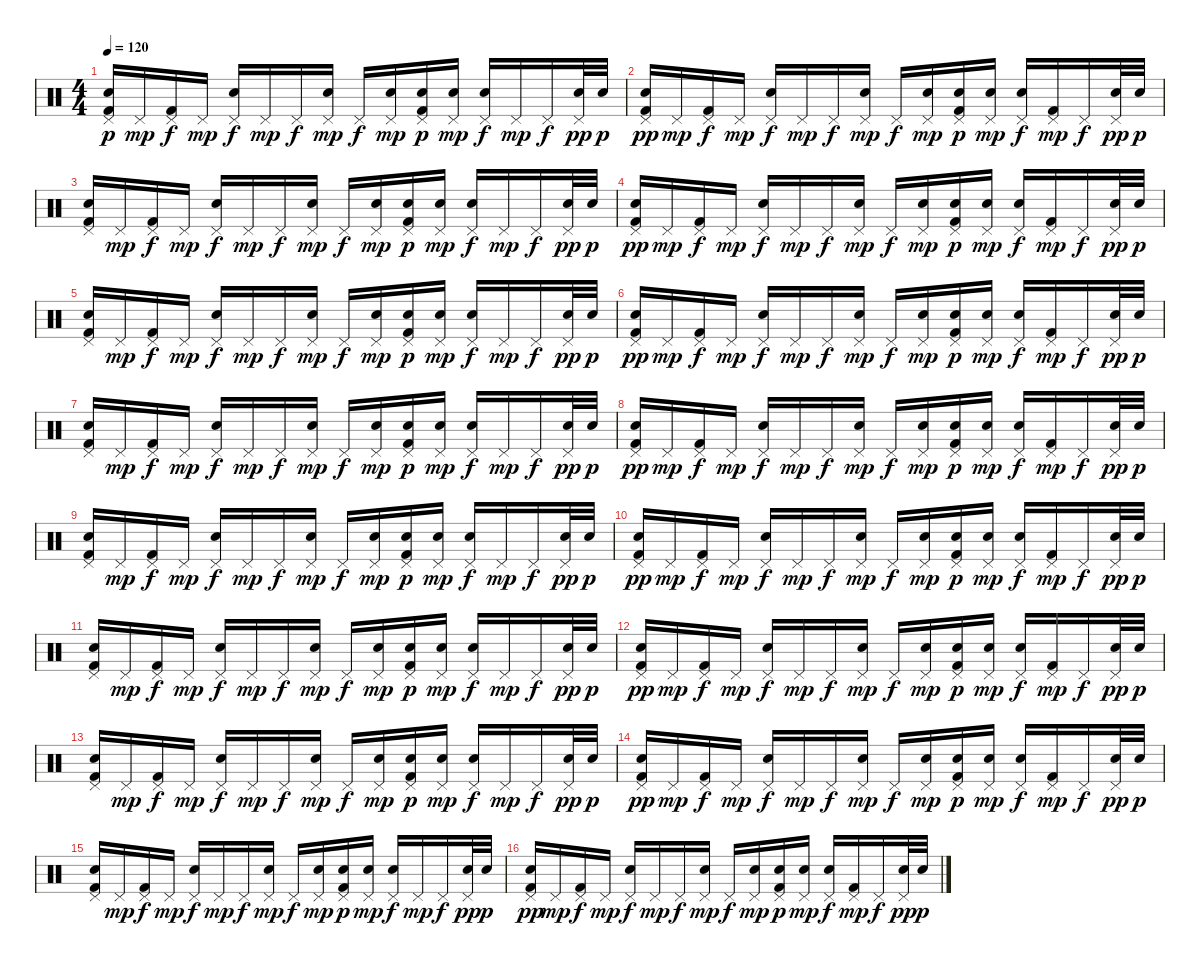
\track "" {instrument percussion}
\staff {score}
\articulation defaults
\ts (4 4)
\tempo 120
\clef neutral
\ks c
("Pedal Hi-Hat (hit)" "Electric Snare (hit)" "Kick (hit) 2").16{dy p} "Pedal Hi-Hat (hit)".16{dy mp} ("Pedal Hi-Hat (hit)" "Kick (hit) 2").16{dy f} "Pedal Hi-Hat (hit)".16{dy mp} ("Pedal Hi-Hat (hit)" "Electric Snare (hit)").16{dy f} "Pedal Hi-Hat (hit)".16{dy mp} "Pedal Hi-Hat (hit)".16{dy f} ("Pedal Hi-Hat (hit)" "Electric Snare (hit)").16{dy mp} "Pedal Hi-Hat (hit)".16{dy f} ("Pedal Hi-Hat (hit)" "Electric Snare (hit)").16{dy mp} ("Pedal Hi-Hat (hit)" "Electric Snare (hit)" "Kick (hit) 2").16{dy p} ("Pedal Hi-Hat (hit)" "Electric Snare (hit)").16{dy mp} ("Pedal Hi-Hat (hit)" "Electric Snare (hit)").16{dy f} "Pedal Hi-Hat (hit)".16{dy mp} "Pedal Hi-Hat (hit)".16{dy f} ("Pedal Hi-Hat (hit)" "Electric Snare (hit)").32{dy pp} "Electric Snare (hit)".32{dy p} |
("Pedal Hi-Hat (hit)" "Electric Snare (hit)" "Kick (hit) 2").16{dy pp} "Pedal Hi-Hat (hit)".16{dy mp} ("Pedal Hi-Hat (hit)" "Kick (hit) 2").16{dy f} "Pedal Hi-Hat (hit)".16{dy mp} ("Pedal Hi-Hat (hit)" "Electric Snare (hit)").16{dy f} "Pedal Hi-Hat (hit)".16{dy mp} "Pedal Hi-Hat (hit)".16{dy f} ("Pedal Hi-Hat (hit)" "Electric Snare (hit)").16{dy mp} "Pedal Hi-Hat (hit)".16{dy f} ("Pedal Hi-Hat (hit)" "Electric Snare (hit)").16{dy mp} ("Pedal Hi-Hat (hit)" "Electric Snare (hit)" "Kick (hit) 2").16{dy p} ("Pedal Hi-Hat (hit)" "Electric Snare (hit)").16{dy mp} ("Pedal Hi-Hat (hit)" "Electric Snare (hit)").16{dy f} ("Pedal Hi-Hat (hit)" "Kick (hit) 2").16{dy mp} "Pedal Hi-Hat (hit)".16{dy f} ("Pedal Hi-Hat (hit)" "Electric Snare (hit)").32{dy pp} "Electric Snare (hit)".32{dy p} |
("Pedal Hi-Hat (hit)" "Electric Snare (hit)" "Kick (hit) 2").16 "Pedal Hi-Hat (hit)".16{dy mp} ("Pedal Hi-Hat (hit)" "Kick (hit) 2").16{dy f} "Pedal Hi-Hat (hit)".16{dy mp} ("Pedal Hi-Hat (hit)" "Electric Snare (hit)").16{dy f} "Pedal Hi-Hat (hit)".16{dy mp} "Pedal Hi-Hat (hit)".16{dy f} ("Pedal Hi-Hat (hit)" "Electric Snare (hit)").16{dy mp} "Pedal Hi-Hat (hit)".16{dy f} ("Pedal Hi-Hat (hit)" "Electric Snare (hit)").16{dy mp} ("Pedal Hi-Hat (hit)" "Electric Snare (hit)" "Kick (hit) 2").16{dy p} ("Pedal Hi-Hat (hit)" "Electric Snare (hit)").16{dy mp} ("Pedal Hi-Hat (hit)" "Electric Snare (hit)").16{dy f} "Pedal Hi-Hat (hit)".16{dy mp} "Pedal Hi-Hat (hit)".16{dy f} ("Pedal Hi-Hat (hit)" "Electric Snare (hit)").32{dy pp} "Electric Snare (hit)".32{dy p} |
("Pedal Hi-Hat (hit)" "Electric Snare (hit)" "Kick (hit) 2").16{dy pp} "Pedal Hi-Hat (hit)".16{dy mp} ("Pedal Hi-Hat (hit)" "Kick (hit) 2").16{dy f} "Pedal Hi-Hat (hit)".16{dy mp} ("Pedal Hi-Hat (hit)" "Electric Snare (hit)").16{dy f} "Pedal Hi-Hat (hit)".16{dy mp} "Pedal Hi-Hat (hit)".16{dy f} ("Pedal Hi-Hat (hit)" "Electric Snare (hit)").16{dy mp} "Pedal Hi-Hat (hit)".16{dy f} ("Pedal Hi-Hat (hit)" "Electric Snare (hit)").16{dy mp} ("Pedal Hi-Hat (hit)" "Electric Snare (hit)" "Kick (hit) 2").16{dy p} ("Pedal Hi-Hat (hit)" "Electric Snare (hit)").16{dy mp} ("Pedal Hi-Hat (hit)" "Electric Snare (hit)").16{dy f} ("Pedal Hi-Hat (hit)" "Kick (hit) 2").16{dy mp} "Pedal Hi-Hat (hit)".16{dy f} ("Pedal Hi-Hat (hit)" "Electric Snare (hit)").32{dy pp} "Electric Snare (hit)".32{dy p} |
("Pedal Hi-Hat (hit)" "Electric Snare (hit)" "Kick (hit) 2").16 "Pedal Hi-Hat (hit)".16{dy mp} ("Pedal Hi-Hat (hit)" "Kick (hit) 2").16{dy f} "Pedal Hi-Hat (hit)".16{dy mp} ("Pedal Hi-Hat (hit)" "Electric Snare (hit)").16{dy f} "Pedal Hi-Hat (hit)".16{dy mp} "Pedal Hi-Hat (hit)".16{dy f} ("Pedal Hi-Hat (hit)" "Electric Snare (hit)").16{dy mp} "Pedal Hi-Hat (hit)".16{dy f} ("Pedal Hi-Hat (hit)" "Electric Snare (hit)").16{dy mp} ("Pedal Hi-Hat (hit)" "Electric Snare (hit)" "Kick (hit) 2").16{dy p} ("Pedal Hi-Hat (hit)" "Electric Snare (hit)").16{dy mp} ("Pedal Hi-Hat (hit)" "Electric Snare (hit)").16{dy f} "Pedal Hi-Hat (hit)".16{dy mp} "Pedal Hi-Hat (hit)".16{dy f} ("Pedal Hi-Hat (hit)" "Electric Snare (hit)").32{dy pp} "Electric Snare (hit)".32{dy p} |
("Pedal Hi-Hat (hit)" "Electric Snare (hit)" "Kick (hit) 2").16{dy pp} "Pedal Hi-Hat (hit)".16{dy mp} ("Pedal Hi-Hat (hit)" "Kick (hit) 2").16{dy f} "Pedal Hi-Hat (hit)".16{dy mp} ("Pedal Hi-Hat (hit)" "Electric Snare (hit)").16{dy f} "Pedal Hi-Hat (hit)".16{dy mp} "Pedal Hi-Hat (hit)".16{dy f} ("Pedal Hi-Hat (hit)" "Electric Snare (hit)").16{dy mp} "Pedal Hi-Hat (hit)".16{dy f} ("Pedal Hi-Hat (hit)" "Electric Snare (hit)").16{dy mp} ("Pedal Hi-Hat (hit)" "Electric Snare (hit)" "Kick (hit) 2").16{dy p} ("Pedal Hi-Hat (hit)" "Electric Snare (hit)").16{dy mp} ("Pedal Hi-Hat (hit)" "Electric Snare (hit)").16{dy f} ("Pedal Hi-Hat (hit)" "Kick (hit) 2").16{dy mp} "Pedal Hi-Hat (hit)".16{dy f} ("Pedal Hi-Hat (hit)" "Electric Snare (hit)").32{dy pp} "Electric Snare (hit)".32{dy p} |
("Pedal Hi-Hat (hit)" "Electric Snare (hit)" "Kick (hit) 2").16 "Pedal Hi-Hat (hit)".16{dy mp} ("Pedal Hi-Hat (hit)" "Kick (hit) 2").16{dy f} "Pedal Hi-Hat (hit)".16{dy mp} ("Pedal Hi-Hat (hit)" "Electric Snare (hit)").16{dy f} "Pedal Hi-Hat (hit)".16{dy mp} "Pedal Hi-Hat (hit)".16{dy f} ("Pedal Hi-Hat (hit)" "Electric Snare (hit)").16{dy mp} "Pedal Hi-Hat (hit)".16{dy f} ("Pedal Hi-Hat (hit)" "Electric Snare (hit)").16{dy mp} ("Pedal Hi-Hat (hit)" "Electric Snare (hit)" "Kick (hit) 2").16{dy p} ("Pedal Hi-Hat (hit)" "Electric Snare (hit)").16{dy mp} ("Pedal Hi-Hat (hit)" "Electric Snare (hit)").16{dy f} "Pedal Hi-Hat (hit)".16{dy mp} "Pedal Hi-Hat (hit)".16{dy f} ("Pedal Hi-Hat (hit)" "Electric Snare (hit)").32{dy pp} "Electric Snare (hit)".32{dy p} |
("Pedal Hi-Hat (hit)" "Electric Snare (hit)" "Kick (hit) 2").16{dy pp} "Pedal Hi-Hat (hit)".16{dy mp} ("Pedal Hi-Hat (hit)" "Kick (hit) 2").16{dy f} "Pedal Hi-Hat (hit)".16{dy mp} ("Pedal Hi-Hat (hit)" "Electric Snare (hit)").16{dy f} "Pedal Hi-Hat (hit)".16{dy mp} "Pedal Hi-Hat (hit)".16{dy f} ("Pedal Hi-Hat (hit)" "Electric Snare (hit)").16{dy mp} "Pedal Hi-Hat (hit)".16{dy f} ("Pedal Hi-Hat (hit)" "Electric Snare (hit)").16{dy mp} ("Pedal Hi-Hat (hit)" "Electric Snare (hit)" "Kick (hit) 2").16{dy p} ("Pedal Hi-Hat (hit)" "Electric Snare (hit)").16{dy mp} ("Pedal Hi-Hat (hit)" "Electric Snare (hit)").16{dy f} ("Pedal Hi-Hat (hit)" "Kick (hit) 2").16{dy mp} "Pedal Hi-Hat (hit)".16{dy f} ("Pedal Hi-Hat (hit)" "Electric Snare (hit)").32{dy pp} "Electric Snare (hit)".32{dy p} |
("Pedal Hi-Hat (hit)" "Electric Snare (hit)" "Kick (hit) 2").16 "Pedal Hi-Hat (hit)".16{dy mp} ("Pedal Hi-Hat (hit)" "Kick (hit) 2").16{dy f} "Pedal Hi-Hat (hit)".16{dy mp} ("Pedal Hi-Hat (hit)" "Electric Snare (hit)").16{dy f} "Pedal Hi-Hat (hit)".16{dy mp} "Pedal Hi-Hat (hit)".16{dy f} ("Pedal Hi-Hat (hit)" "Electric Snare (hit)").16{dy mp} "Pedal Hi-Hat (hit)".16{dy f} ("Pedal Hi-Hat (hit)" "Electric Snare (hit)").16{dy mp} ("Pedal Hi-Hat (hit)" "Electric Snare (hit)" "Kick (hit) 2").16{dy p} ("Pedal Hi-Hat (hit)" "Electric Snare (hit)").16{dy mp} ("Pedal Hi-Hat (hit)" "Electric Snare (hit)").16{dy f} "Pedal Hi-Hat (hit)".16{dy mp} "Pedal Hi-Hat (hit)".16{dy f} ("Pedal Hi-Hat (hit)" "Electric Snare (hit)").32{dy pp} "Electric Snare (hit)".32{dy p} |
("Pedal Hi-Hat (hit)" "Electric Snare (hit)" "Kick (hit) 2").16{dy pp} "Pedal Hi-Hat (hit)".16{dy mp} ("Pedal Hi-Hat (hit)" "Kick (hit) 2").16{dy f} "Pedal Hi-Hat (hit)".16{dy mp} ("Pedal Hi-Hat (hit)" "Electric Snare (hit)").16{dy f} "Pedal Hi-Hat (hit)".16{dy mp} "Pedal Hi-Hat (hit)".16{dy f} ("Pedal Hi-Hat (hit)" "Electric Snare (hit)").16{dy mp} "Pedal Hi-Hat (hit)".16{dy f} ("Pedal Hi-Hat (hit)" "Electric Snare (hit)").16{dy mp} ("Pedal Hi-Hat (hit)" "Electric Snare (hit)" "Kick (hit) 2").16{dy p} ("Pedal Hi-Hat (hit)" "Electric Snare (hit)").16{dy mp} ("Pedal Hi-Hat (hit)" "Electric Snare (hit)").16{dy f} ("Pedal Hi-Hat (hit)" "Kick (hit) 2").16{dy mp} "Pedal Hi-Hat (hit)".16{dy f} ("Pedal Hi-Hat (hit)" "Electric Snare (hit)").32{dy pp} "Electric Snare (hit)".32{dy p} |
("Pedal Hi-Hat (hit)" "Electric Snare (hit)" "Kick (hit) 2").16 "Pedal Hi-Hat (hit)".16{dy mp} ("Pedal Hi-Hat (hit)" "Kick (hit) 2").16{dy f} "Pedal Hi-Hat (hit)".16{dy mp} ("Pedal Hi-Hat (hit)" "Electric Snare (hit)").16{dy f} "Pedal Hi-Hat (hit)".16{dy mp} "Pedal Hi-Hat (hit)".16{dy f} ("Pedal Hi-Hat (hit)" "Electric Snare (hit)").16{dy mp} "Pedal Hi-Hat (hit)".16{dy f} ("Pedal Hi-Hat (hit)" "Electric Snare (hit)").16{dy mp} ("Pedal Hi-Hat (hit)" "Electric Snare (hit)" "Kick (hit) 2").16{dy p} ("Pedal Hi-Hat (hit)" "Electric Snare (hit)").16{dy mp} ("Pedal Hi-Hat (hit)" "Electric Snare (hit)").16{dy f} "Pedal Hi-Hat (hit)".16{dy mp} "Pedal Hi-Hat (hit)".16{dy f} ("Pedal Hi-Hat (hit)" "Electric Snare (hit)").32{dy pp} "Electric Snare (hit)".32{dy p} |
("Pedal Hi-Hat (hit)" "Electric Snare (hit)" "Kick (hit) 2").16{dy pp} "Pedal Hi-Hat (hit)".16{dy mp} ("Pedal Hi-Hat (hit)" "Kick (hit) 2").16{dy f} "Pedal Hi-Hat (hit)".16{dy mp} ("Pedal Hi-Hat (hit)" "Electric Snare (hit)").16{dy f} "Pedal Hi-Hat (hit)".16{dy mp} "Pedal Hi-Hat (hit)".16{dy f} ("Pedal Hi-Hat (hit)" "Electric Snare (hit)").16{dy mp} "Pedal Hi-Hat (hit)".16{dy f} ("Pedal Hi-Hat (hit)" "Electric Snare (hit)").16{dy mp} ("Pedal Hi-Hat (hit)" "Electric Snare (hit)" "Kick (hit) 2").16{dy p} ("Pedal Hi-Hat (hit)" "Electric Snare (hit)").16{dy mp} ("Pedal Hi-Hat (hit)" "Electric Snare (hit)").16{dy f} ("Pedal Hi-Hat (hit)" "Kick (hit) 2").16{dy mp} "Pedal Hi-Hat (hit)".16{dy f} ("Pedal Hi-Hat (hit)" "Electric Snare (hit)").32{dy pp} "Electric Snare (hit)".32{dy p} |
("Pedal Hi-Hat (hit)" "Electric Snare (hit)" "Kick (hit) 2").16 "Pedal Hi-Hat (hit)".16{dy mp} ("Pedal Hi-Hat (hit)" "Kick (hit) 2").16{dy f} "Pedal Hi-Hat (hit)".16{dy mp} ("Pedal Hi-Hat (hit)" "Electric Snare (hit)").16{dy f} "Pedal Hi-Hat (hit)".16{dy mp} "Pedal Hi-Hat (hit)".16{dy f} ("Pedal Hi-Hat (hit)" "Electric Snare (hit)").16{dy mp} "Pedal Hi-Hat (hit)".16{dy f} ("Pedal Hi-Hat (hit)" "Electric Snare (hit)").16{dy mp} ("Pedal Hi-Hat (hit)" "Electric Snare (hit)" "Kick (hit) 2").16{dy p} ("Pedal Hi-Hat (hit)" "Electric Snare (hit)").16{dy mp} ("Pedal Hi-Hat (hit)" "Electric Snare (hit)").16{dy f} "Pedal Hi-Hat (hit)".16{dy mp} "Pedal Hi-Hat (hit)".16{dy f} ("Pedal Hi-Hat (hit)" "Electric Snare (hit)").32{dy pp} "Electric Snare (hit)".32{dy p} |
("Pedal Hi-Hat (hit)" "Electric Snare (hit)" "Kick (hit) 2").16{dy pp} "Pedal Hi-Hat (hit)".16{dy mp} ("Pedal Hi-Hat (hit)" "Kick (hit) 2").16{dy f} "Pedal Hi-Hat (hit)".16{dy mp} ("Pedal Hi-Hat (hit)" "Electric Snare (hit)").16{dy f} "Pedal Hi-Hat (hit)".16{dy mp} "Pedal Hi-Hat (hit)".16{dy f} ("Pedal Hi-Hat (hit)" "Electric Snare (hit)").16{dy mp} "Pedal Hi-Hat (hit)".16{dy f} ("Pedal Hi-Hat (hit)" "Electric Snare (hit)").16{dy mp} ("Pedal Hi-Hat (hit)" "Electric Snare (hit)" "Kick (hit) 2").16{dy p} ("Pedal Hi-Hat (hit)" "Electric Snare (hit)").16{dy mp} ("Pedal Hi-Hat (hit)" "Electric Snare (hit)").16{dy f} ("Pedal Hi-Hat (hit)" "Kick (hit) 2").16{dy mp} "Pedal Hi-Hat (hit)".16{dy f} ("Pedal Hi-Hat (hit)" "Electric Snare (hit)").32{dy pp} "Electric Snare (hit)".32{dy p} |
("Pedal Hi-Hat (hit)" "Electric Snare (hit)" "Kick (hit) 2").16 "Pedal Hi-Hat (hit)".16{dy mp} ("Pedal Hi-Hat (hit)" "Kick (hit) 2").16{dy f} "Pedal Hi-Hat (hit)".16{dy mp} ("Pedal Hi-Hat (hit)" "Electric Snare (hit)").16{dy f} "Pedal Hi-Hat (hit)".16{dy mp} "Pedal Hi-Hat (hit)".16{dy f} ("Pedal Hi-Hat (hit)" "Electric Snare (hit)").16{dy mp} "Pedal Hi-Hat (hit)".16{dy f} ("Pedal Hi-Hat (hit)" "Electric Snare (hit)").16{dy mp} ("Pedal Hi-Hat (hit)" "Electric Snare (hit)" "Kick (hit) 2").16{dy p} ("Pedal Hi-Hat (hit)" "Electric Snare (hit)").16{dy mp} ("Pedal Hi-Hat (hit)" "Electric Snare (hit)").16{dy f} "Pedal Hi-Hat (hit)".16{dy mp} "Pedal Hi-Hat (hit)".16{dy f} ("Pedal Hi-Hat (hit)" "Electric Snare (hit)").32{dy pp} "Electric Snare (hit)".32{dy p} |
("Pedal Hi-Hat (hit)" "Electric Snare (hit)" "Kick (hit) 2").16{dy pp} "Pedal Hi-Hat (hit)".16{dy mp} ("Pedal Hi-Hat (hit)" "Kick (hit) 2").16{dy f} "Pedal Hi-Hat (hit)".16{dy mp} ("Pedal Hi-Hat (hit)" "Electric Snare (hit)").16{dy f} "Pedal Hi-Hat (hit)".16{dy mp} "Pedal Hi-Hat (hit)".16{dy f} ("Pedal Hi-Hat (hit)" "Electric Snare (hit)").16{dy mp} "Pedal Hi-Hat (hit)".16{dy f} ("Pedal Hi-Hat (hit)" "Electric Snare (hit)").16{dy mp} ("Pedal Hi-Hat (hit)" "Electric Snare (hit)" "Kick (hit) 2").16{dy p} ("Pedal Hi-Hat (hit)" "Electric Snare (hit)").16{dy mp} ("Pedal Hi-Hat (hit)" "Electric Snare (hit)").16{dy f} ("Pedal Hi-Hat (hit)" "Kick (hit) 2").16{dy mp} "Pedal Hi-Hat (hit)".16{dy f} ("Pedal Hi-Hat (hit)" "Electric Snare (hit)").32{dy pp} "Electric Snare (hit)".32{dy p}
